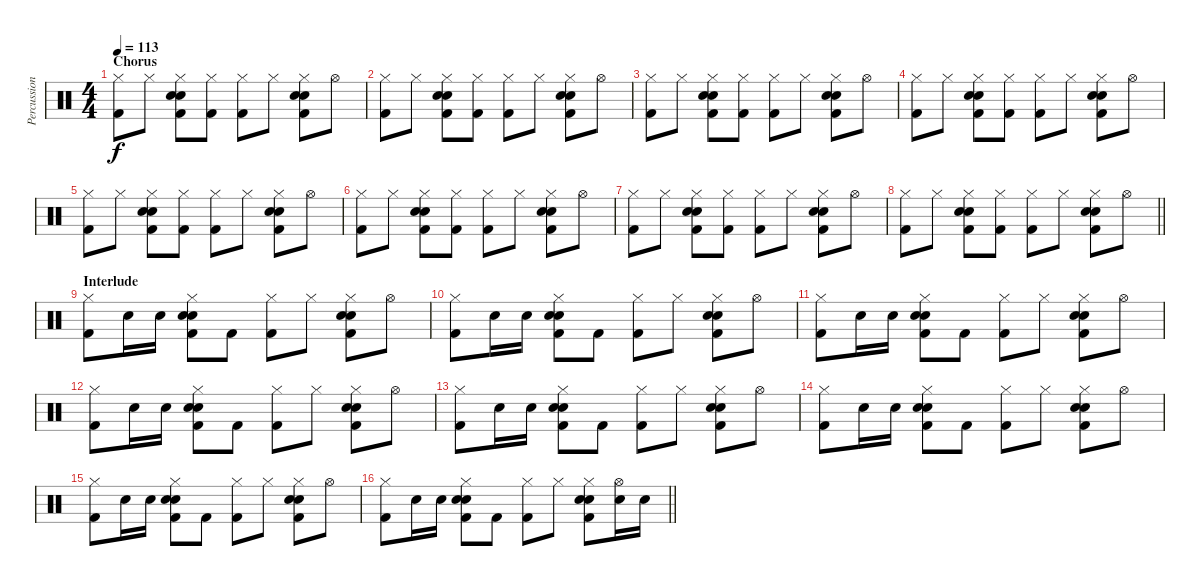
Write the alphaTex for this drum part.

\track ("Percussion" "Percussion") {instrument percussion}
\staff {score}
\articulation defaults
\ts (4 4)
\section ("" "Chorus")
\tempo 113
\clef neutral
\ks c
("Hi-Hat (closed)" "Kick (hit) 2").8{dy f} "Hi-Hat (closed)".8 ("Hand Clap (hit)" "Hi-Hat (closed)" "Electric Snare (hit)" "Kick (hit) 2").8 ("Hi-Hat (closed)" "Kick (hit) 2").8 ("Hi-Hat (closed)" "Kick (hit) 2").8 "Hi-Hat (closed)".8 ("Hand Clap (hit)" "Hi-Hat (closed)" "Electric Snare (hit)" "Kick (hit) 2").8 "Hi-Hat (open)".8 |
("Hi-Hat (closed)" "Kick (hit) 2").8 "Hi-Hat (closed)".8 ("Hand Clap (hit)" "Hi-Hat (closed)" "Electric Snare (hit)" "Kick (hit) 2").8 ("Hi-Hat (closed)" "Kick (hit) 2").8 ("Hi-Hat (closed)" "Kick (hit) 2").8 "Hi-Hat (closed)".8 ("Hand Clap (hit)" "Hi-Hat (closed)" "Electric Snare (hit)" "Kick (hit) 2").8 "Hi-Hat (open)".8 |
("Hi-Hat (closed)" "Kick (hit) 2").8 "Hi-Hat (closed)".8 ("Hand Clap (hit)" "Hi-Hat (closed)" "Electric Snare (hit)" "Kick (hit) 2").8 ("Hi-Hat (closed)" "Kick (hit) 2").8 ("Hi-Hat (closed)" "Kick (hit) 2").8 "Hi-Hat (closed)".8 ("Hand Clap (hit)" "Hi-Hat (closed)" "Electric Snare (hit)" "Kick (hit) 2").8 "Hi-Hat (open)".8 |
("Hi-Hat (closed)" "Kick (hit) 2").8 "Hi-Hat (closed)".8 ("Hand Clap (hit)" "Hi-Hat (closed)" "Electric Snare (hit)" "Kick (hit) 2").8 ("Hi-Hat (closed)" "Kick (hit) 2").8 ("Hi-Hat (closed)" "Kick (hit) 2").8 "Hi-Hat (closed)".8 ("Hand Clap (hit)" "Hi-Hat (closed)" "Electric Snare (hit)" "Kick (hit) 2").8 "Hi-Hat (open)".8 |
("Hi-Hat (closed)" "Kick (hit) 2").8 "Hi-Hat (closed)".8 ("Hand Clap (hit)" "Hi-Hat (closed)" "Electric Snare (hit)" "Kick (hit) 2").8 ("Hi-Hat (closed)" "Kick (hit) 2").8 ("Hi-Hat (closed)" "Kick (hit) 2").8 "Hi-Hat (closed)".8 ("Hand Clap (hit)" "Hi-Hat (closed)" "Electric Snare (hit)" "Kick (hit) 2").8 "Hi-Hat (open)".8 |
("Hi-Hat (closed)" "Kick (hit) 2").8 "Hi-Hat (closed)".8 ("Hand Clap (hit)" "Hi-Hat (closed)" "Electric Snare (hit)" "Kick (hit) 2").8 ("Hi-Hat (closed)" "Kick (hit) 2").8 ("Hi-Hat (closed)" "Kick (hit) 2").8 "Hi-Hat (closed)".8 ("Hand Clap (hit)" "Hi-Hat (closed)" "Electric Snare (hit)" "Kick (hit) 2").8 "Hi-Hat (open)".8 |
("Hi-Hat (closed)" "Kick (hit) 2").8 "Hi-Hat (closed)".8 ("Hand Clap (hit)" "Hi-Hat (closed)" "Electric Snare (hit)" "Kick (hit) 2").8 ("Hi-Hat (closed)" "Kick (hit) 2").8 ("Hi-Hat (closed)" "Kick (hit) 2").8 "Hi-Hat (closed)".8 ("Hand Clap (hit)" "Hi-Hat (closed)" "Electric Snare (hit)" "Kick (hit) 2").8 "Hi-Hat (open)".8 |
\barLineRight lightlight
("Hi-Hat (closed)" "Kick (hit) 2").8 "Hi-Hat (closed)".8 ("Hand Clap (hit)" "Hi-Hat (closed)" "Electric Snare (hit)" "Kick (hit) 2").8 ("Hi-Hat (closed)" "Kick (hit) 2").8 ("Hi-Hat (closed)" "Kick (hit) 2").8 "Hi-Hat (closed)".8 ("Hand Clap (hit)" "Hi-Hat (closed)" "Electric Snare (hit)" "Kick (hit) 2").8 "Hi-Hat (open)".8 |
\section ("" "Interlude")
("Hi-Hat (closed)" "Kick (hit) 2").8 "Electric Snare (hit)".16 "Electric Snare (hit)".16 ("Hand Clap (hit)" "Hi-Hat (closed)" "Electric Snare (hit)" "Kick (hit) 2").8 "Kick (hit) 2".8 ("Hi-Hat (closed)" "Kick (hit) 2").8 "Hi-Hat (closed)".8 ("Hand Clap (hit)" "Hi-Hat (closed)" "Electric Snare (hit)" "Kick (hit) 2").8 "Hi-Hat (open)".8 |
("Hi-Hat (closed)" "Kick (hit) 2").8 "Electric Snare (hit)".16 "Electric Snare (hit)".16 ("Hand Clap (hit)" "Hi-Hat (closed)" "Electric Snare (hit)" "Kick (hit) 2").8 "Kick (hit) 2".8 ("Hi-Hat (closed)" "Kick (hit) 2").8 "Hi-Hat (closed)".8 ("Hand Clap (hit)" "Hi-Hat (closed)" "Electric Snare (hit)" "Kick (hit) 2").8 "Hi-Hat (open)".8 |
("Hi-Hat (closed)" "Kick (hit) 2").8 "Electric Snare (hit)".16 "Electric Snare (hit)".16 ("Hand Clap (hit)" "Hi-Hat (closed)" "Electric Snare (hit)" "Kick (hit) 2").8 "Kick (hit) 2".8 ("Hi-Hat (closed)" "Kick (hit) 2").8 "Hi-Hat (closed)".8 ("Hand Clap (hit)" "Hi-Hat (closed)" "Electric Snare (hit)" "Kick (hit) 2").8 "Hi-Hat (open)".8 |
("Hi-Hat (closed)" "Kick (hit) 2").8 "Electric Snare (hit)".16 "Electric Snare (hit)".16 ("Hand Clap (hit)" "Hi-Hat (closed)" "Electric Snare (hit)" "Kick (hit) 2").8 "Kick (hit) 2".8 ("Hi-Hat (closed)" "Kick (hit) 2").8 "Hi-Hat (closed)".8 ("Hand Clap (hit)" "Hi-Hat (closed)" "Electric Snare (hit)" "Kick (hit) 2").8 "Hi-Hat (open)".8 |
("Hi-Hat (closed)" "Kick (hit) 2").8 "Electric Snare (hit)".16 "Electric Snare (hit)".16 ("Hand Clap (hit)" "Hi-Hat (closed)" "Electric Snare (hit)" "Kick (hit) 2").8 "Kick (hit) 2".8 ("Hi-Hat (closed)" "Kick (hit) 2").8 "Hi-Hat (closed)".8 ("Hand Clap (hit)" "Hi-Hat (closed)" "Electric Snare (hit)" "Kick (hit) 2").8 "Hi-Hat (open)".8 |
("Hi-Hat (closed)" "Kick (hit) 2").8 "Electric Snare (hit)".16 "Electric Snare (hit)".16 ("Hand Clap (hit)" "Hi-Hat (closed)" "Electric Snare (hit)" "Kick (hit) 2").8 "Kick (hit) 2".8 ("Hi-Hat (closed)" "Kick (hit) 2").8 "Hi-Hat (closed)".8 ("Hand Clap (hit)" "Hi-Hat (closed)" "Electric Snare (hit)" "Kick (hit) 2").8 "Hi-Hat (open)".8 |
("Hi-Hat (closed)" "Kick (hit) 2").8 "Electric Snare (hit)".16 "Electric Snare (hit)".16 ("Hand Clap (hit)" "Hi-Hat (closed)" "Electric Snare (hit)" "Kick (hit) 2").8 "Kick (hit) 2".8 ("Hi-Hat (closed)" "Kick (hit) 2").8 "Hi-Hat (closed)".8 ("Hand Clap (hit)" "Hi-Hat (closed)" "Electric Snare (hit)" "Kick (hit) 2").8 "Hi-Hat (open)".8 |
\barLineRight lightlight
("Hi-Hat (closed)" "Kick (hit) 2").8 "Electric Snare (hit)".16 "Electric Snare (hit)".16 ("Hand Clap (hit)" "Hi-Hat (closed)" "Electric Snare (hit)" "Kick (hit) 2").8 "Kick (hit) 2".8 ("Hi-Hat (closed)" "Kick (hit) 2").8 "Hi-Hat (closed)".8 ("Hand Clap (hit)" "Hi-Hat (closed)" "Electric Snare (hit)" "Kick (hit) 2").8 ("Hi-Hat (open)" "Electric Snare (hit)").16 "Electric Snare (hit)".16
